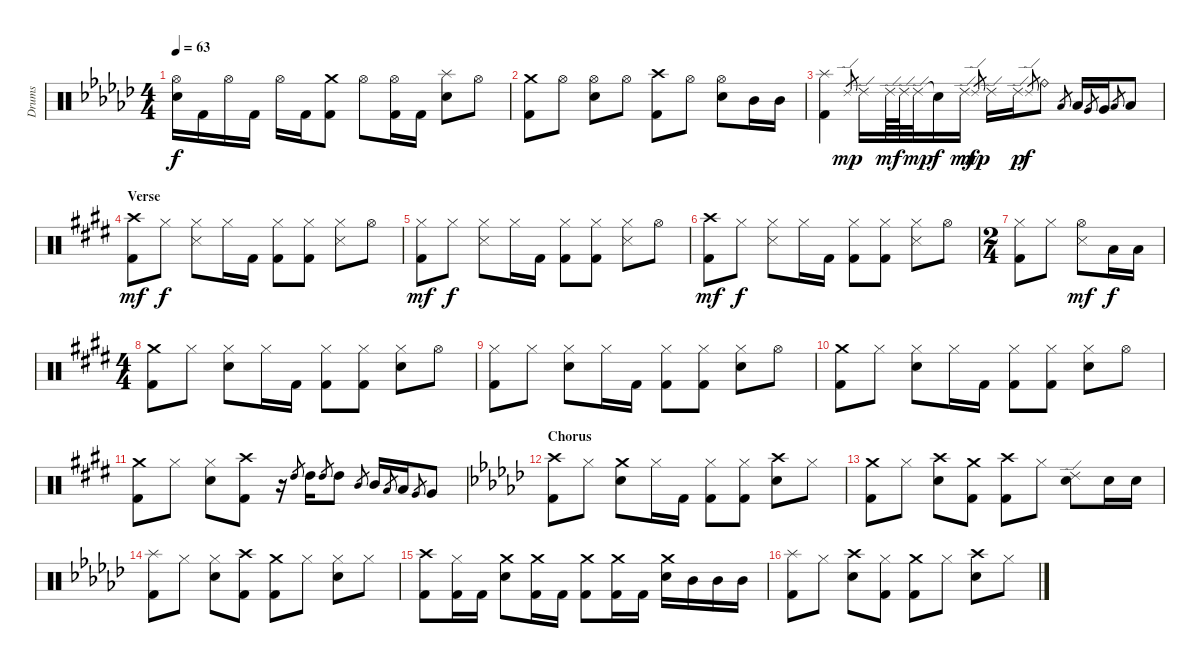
\track ("Drums" "Drums") {instrument percussion}
\staff {score}
\articulation defaults
\ts (4 4)
\tempo 63
\clef neutral
\ks ebminor
("Hi-Hat (open)" "Snare (hit) 2").16{dy f} "Kick (hit) 2".16 "Hi-Hat (open)".16 "Kick (hit) 2".16 "Hi-Hat (open)".16 "Kick (hit) 2".16 ("Crash medium (hit)" "Kick (hit) 2").8 "Hi-Hat (open)".8 ("Hi-Hat (open)" "Kick (hit) 2").16 "Kick (hit) 2".16 ("Splash (hit)" "Snare (hit) 2").8 "Hi-Hat (open)".8 |
("Crash medium (hit)" "Kick (hit) 2").8 "Hi-Hat (open)".8 ("Hi-Hat (open)" "Snare (hit) 2").8 "Hi-Hat (open)".8 ("Crash high (hit)" "Kick (hit) 2").8 "Hi-Hat (open)".8 ("Hi-Hat (open)" "Snare (hit) 2").8 "Mid Tom (hit)".16 "Mid Tom (hit)".16 |
("Splash (hit)" "Kick (hit) 2").4 "Ride (edge) 2".8{gr dy mp} "Ride (edge) 2".16 "Ride (edge) 2".64{dy mf} "Ride (edge) 2".64 "Ride (edge) 2".32{dy mp} "Snare (hit)"{t}.16{dy f} "Ride (edge) 2".16{dy mf} "Ride (edge) 2".8{gr dy mp} "Ride (edge) 2".16 "Ride (edge) 2".16{dy p} "Ride (edge) 2".8{gr dy f} "Ride (bell)".8 "Low Tom (hit)".8{gr} "Low Tom (hit)".16 "Very Low Tom (hit)".8{gr} "Very Low Tom (hit)".16 "Low Floor Tom (hit)".8{gr} "Low Floor Tom (hit)".8 |
\section ("" "Verse")
\ks c#minor
("Crash high (hit)" "Kick (hit) 2").8{dy mf} "Hi-Hat (closed)".8{dy f} ("Hi-Hat (closed)" "Snare (side stick) 3").8 "Hi-Hat (closed)".16 "Kick (hit) 2".16 ("Hi-Hat (closed)" "Kick (hit) 2").8 ("Hi-Hat (closed)" "Kick (hit) 2").8 ("Hi-Hat (closed)" "Snare (side stick) 3").8 "Hi-Hat (open)".8 |
("Hi-Hat (closed)" "Kick (hit) 2").8{dy mf} "Hi-Hat (closed)".8{dy f} ("Hi-Hat (closed)" "Snare (side stick) 3").8 "Hi-Hat (closed)".16 "Kick (hit) 2".16 ("Hi-Hat (closed)" "Kick (hit) 2").8 ("Hi-Hat (closed)" "Kick (hit) 2").8 ("Hi-Hat (closed)" "Snare (side stick) 3").8 "Hi-Hat (open)".8 |
("Crash high (hit)" "Kick (hit) 2").8{dy mf} "Hi-Hat (closed)".8{dy f} ("Hi-Hat (closed)" "Snare (side stick) 3").8 "Hi-Hat (closed)".16 "Kick (hit) 2".16 ("Hi-Hat (closed)" "Kick (hit) 2").8 ("Hi-Hat (closed)" "Kick (hit) 2").8 ("Hi-Hat (closed)" "Snare (side stick) 3").8 "Hi-Hat (open)".8 |
\ts (2 4)
("Hi-Hat (closed)" "Kick (hit) 2").8 "Hi-Hat (closed)".8 ("Hi-Hat (open)" "Snare (side stick) 3").8{dy mf} "Low Tom (hit)".16{dy f} "Low Tom (hit)".16 |
\ts (4 4)
("Crash medium (hit)" "Kick (hit) 2").8 "Hi-Hat (closed)".8 ("Hi-Hat (closed)" "Snare (hit) 2").8 "Hi-Hat (closed)".16 "Kick (hit) 2".16 ("Hi-Hat (closed)" "Kick (hit) 2").8 ("Hi-Hat (closed)" "Kick (hit) 2").8 ("Hi-Hat (closed)" "Snare (hit) 2").8 "Hi-Hat (open)".8 |
("Hi-Hat (closed)" "Kick (hit) 2").8 "Hi-Hat (closed)".8 ("Hi-Hat (closed)" "Snare (hit) 2").8 "Hi-Hat (closed)".16 "Kick (hit) 2".16 ("Hi-Hat (closed)" "Kick (hit) 2").8 ("Hi-Hat (closed)" "Kick (hit) 2").8 ("Hi-Hat (closed)" "Snare (hit) 2").8 "Hi-Hat (open)".8 |
("Crash medium (hit)" "Kick (hit) 2").8 "Hi-Hat (closed)".8 ("Hi-Hat (closed)" "Snare (hit) 2").8 "Hi-Hat (closed)".16 "Kick (hit) 2".16 ("Hi-Hat (closed)" "Kick (hit) 2").8 ("Hi-Hat (closed)" "Kick (hit) 2").8 ("Hi-Hat (closed)" "Snare (hit) 2").8 "Hi-Hat (open)".8 |
("Crash medium (hit)" "Kick (hit) 2").8 "Hi-Hat (closed)".8 ("Hi-Hat (closed)" "Snare (hit) 2").8 ("Crash high (hit)" "Kick (hit) 2").8 r.16 "High Tom (hit)".8{gr} "High Tom (hit)".16 "High Tom (hit)".8{gr} "High Tom (hit)".8 "Mid Tom (hit)".8{gr} "Mid Tom (hit)".16 "Low Tom (hit)".8{gr} "Low Tom (hit)".16 "Very Low Tom (hit)".8{gr} "Very Low Tom (hit)".8 |
\section ("" "Chorus")
\ks ebminor
("Crash high (hit)" "Kick (hit) 2").8 "Hi-Hat (closed)".8 ("Crash medium (hit)" "Snare (hit) 2").8 "Hi-Hat (closed)".16 "Kick (hit) 2".16 ("Hi-Hat (closed)" "Kick (hit) 2").8 ("Hi-Hat (closed)" "Kick (hit) 2").8 ("Crash high (hit)" "Snare (hit) 2").8 "Hi-Hat (closed)".8 |
("Crash medium (hit)" "Kick (hit) 2").8 "Hi-Hat (closed)".8 ("Crash high (hit)" "Snare (hit) 2").8 ("Crash medium (hit)" "Kick (hit) 2").8 ("Crash high (hit)" "Kick (hit) 2").8 "Hi-Hat (closed)".8 ("Ride (edge) 2" "Snare (hit) 2").8 "Snare (hit) 2".16 "Snare (hit) 2".16 |
("Splash (hit)" "Kick (hit) 2").8 "Hi-Hat (closed)".8 ("Hi-Hat (closed)" "Snare (hit) 2").8 ("Crash high (hit)" "Kick (hit) 2").8 ("Crash medium (hit)" "Kick (hit) 2").8 "Hi-Hat (closed)".8 ("Hi-Hat (closed)" "Snare (hit) 2").8 "Hi-Hat (closed)".8 |
("Crash high (hit)" "Kick (hit) 2").8 ("Hi-Hat (closed)" "Kick (hit) 2").16 "Kick (hit) 2".16 ("Crash medium (hit)" "Snare (hit) 2").8 ("Crash medium (hit)" "Kick (hit) 2").16 "Kick (hit) 2".16 ("Crash medium (hit)" "Kick (hit) 2").8 ("Crash medium (hit)" "Kick (hit) 2").16 "Kick (hit) 2".16 ("Crash medium (hit)" "Snare (hit) 2").16 "Mid Tom (hit)".16 "Mid Tom (hit)".16 "Mid Tom (hit)".16 |
("Splash (hit)" "Kick (hit) 2").8 "Hi-Hat (closed)".8 ("Crash high (hit)" "Snare (hit) 2").8 ("Hi-Hat (closed)" "Kick (hit) 2").8 ("Crash medium (hit)" "Kick (hit) 2").8 "Hi-Hat (closed)".8 ("Crash high (hit)" "Snare (hit) 2").8 "Hi-Hat (closed)".8
